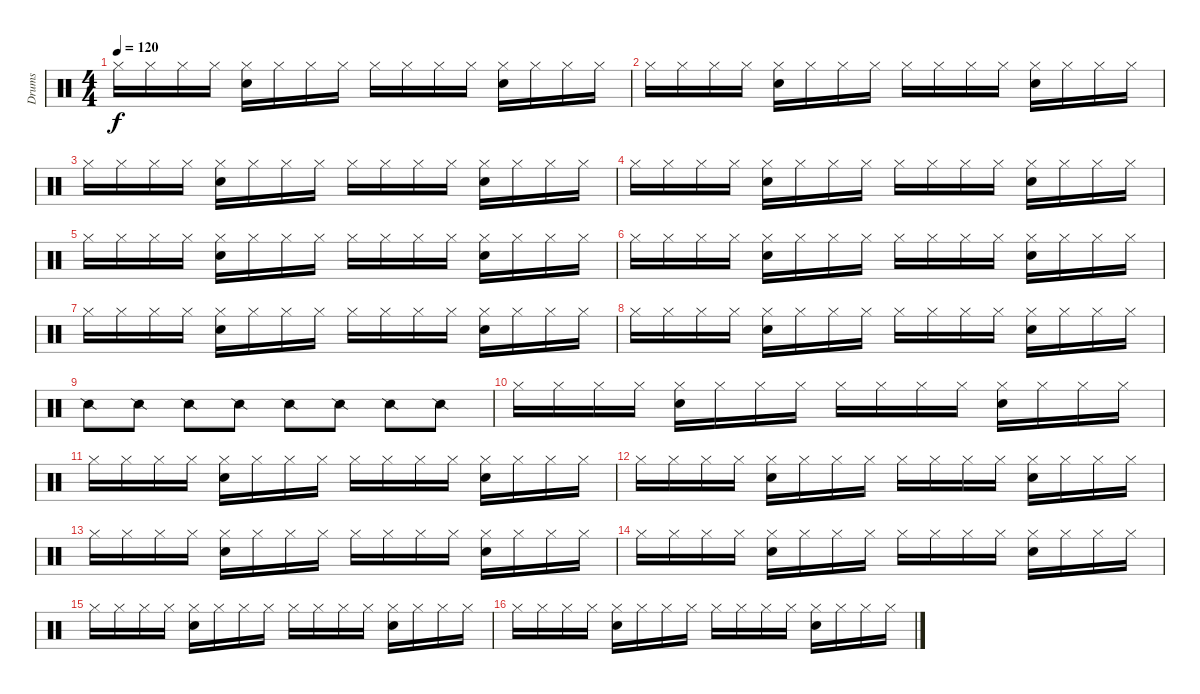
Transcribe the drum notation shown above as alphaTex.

\track ("Drums" "Drums") {instrument percussion}
\staff {score}
\articulation defaults
\ts (4 4)
\tempo 120
\clef neutral
\ks c "Hi-Hat (closed)".16{dy f} "Hi-Hat (closed)".16 "Hi-Hat (closed)".16 "Hi-Hat (closed)".16
("Hi-Hat (closed)" "Electric Snare (hit)").16 "Hi-Hat (closed)".16 "Hi-Hat (closed)".16 "Hi-Hat (closed)".16 "Hi-Hat (closed)".16 "Hi-Hat (closed)".16 "Hi-Hat (closed)".16 "Hi-Hat (closed)".16 ("Hi-Hat (closed)" "Electric Snare (hit)").16 "Hi-Hat (closed)".16 "Hi-Hat (closed)".16 "Hi-Hat (closed)".16 |
"Hi-Hat (closed)".16 "Hi-Hat (closed)".16 "Hi-Hat (closed)".16 "Hi-Hat (closed)".16 ("Hi-Hat (closed)" "Electric Snare (hit)").16 "Hi-Hat (closed)".16 "Hi-Hat (closed)".16 "Hi-Hat (closed)".16 "Hi-Hat (closed)".16 "Hi-Hat (closed)".16 "Hi-Hat (closed)".16 "Hi-Hat (closed)".16 ("Hi-Hat (closed)" "Electric Snare (hit)").16 "Hi-Hat (closed)".16 "Hi-Hat (closed)".16 "Hi-Hat (closed)".16 |
"Hi-Hat (closed)".16 "Hi-Hat (closed)".16 "Hi-Hat (closed)".16 "Hi-Hat (closed)".16 ("Hi-Hat (closed)" "Electric Snare (hit)").16 "Hi-Hat (closed)".16 "Hi-Hat (closed)".16 "Hi-Hat (closed)".16 "Hi-Hat (closed)".16 "Hi-Hat (closed)".16 "Hi-Hat (closed)".16 "Hi-Hat (closed)".16 ("Hi-Hat (closed)" "Electric Snare (hit)").16 "Hi-Hat (closed)".16 "Hi-Hat (closed)".16 "Hi-Hat (closed)".16 |
"Hi-Hat (closed)".16 "Hi-Hat (closed)".16 "Hi-Hat (closed)".16 "Hi-Hat (closed)".16 ("Hi-Hat (closed)" "Electric Snare (hit)").16 "Hi-Hat (closed)".16 "Hi-Hat (closed)".16 "Hi-Hat (closed)".16 "Hi-Hat (closed)".16 "Hi-Hat (closed)".16 "Hi-Hat (closed)".16 "Hi-Hat (closed)".16 ("Hi-Hat (closed)" "Electric Snare (hit)").16 "Hi-Hat (closed)".16 "Hi-Hat (closed)".16 "Hi-Hat (closed)".16 |
"Hi-Hat (closed)".16 "Hi-Hat (closed)".16 "Hi-Hat (closed)".16 "Hi-Hat (closed)".16 ("Hi-Hat (closed)" "Electric Snare (hit)").16 "Hi-Hat (closed)".16 "Hi-Hat (closed)".16 "Hi-Hat (closed)".16 "Hi-Hat (closed)".16 "Hi-Hat (closed)".16 "Hi-Hat (closed)".16 "Hi-Hat (closed)".16 ("Hi-Hat (closed)" "Electric Snare (hit)").16 "Hi-Hat (closed)".16 "Hi-Hat (closed)".16 "Hi-Hat (closed)".16 |
"Hi-Hat (closed)".16 "Hi-Hat (closed)".16 "Hi-Hat (closed)".16 "Hi-Hat (closed)".16 ("Hi-Hat (closed)" "Electric Snare (hit)").16 "Hi-Hat (closed)".16 "Hi-Hat (closed)".16 "Hi-Hat (closed)".16 "Hi-Hat (closed)".16 "Hi-Hat (closed)".16 "Hi-Hat (closed)".16 "Hi-Hat (closed)".16 ("Hi-Hat (closed)" "Electric Snare (hit)").16 "Hi-Hat (closed)".16 "Hi-Hat (closed)".16 "Hi-Hat (closed)".16 |
"Hi-Hat (closed)".16 "Hi-Hat (closed)".16 "Hi-Hat (closed)".16 "Hi-Hat (closed)".16 ("Hi-Hat (closed)" "Electric Snare (hit)").16 "Hi-Hat (closed)".16 "Hi-Hat (closed)".16 "Hi-Hat (closed)".16 "Hi-Hat (closed)".16 "Hi-Hat (closed)".16 "Hi-Hat (closed)".16 "Hi-Hat (closed)".16 ("Hi-Hat (closed)" "Electric Snare (hit)").16 "Hi-Hat (closed)".16 "Hi-Hat (closed)".16 "Hi-Hat (closed)".16 |
"Hi-Hat (closed)".16 "Hi-Hat (closed)".16 "Hi-Hat (closed)".16 "Hi-Hat (closed)".16 ("Hi-Hat (closed)" "Electric Snare (hit)").16 "Hi-Hat (closed)".16 "Hi-Hat (closed)".16 "Hi-Hat (closed)".16 "Hi-Hat (closed)".16 "Hi-Hat (closed)".16 "Hi-Hat (closed)".16 "Hi-Hat (closed)".16 ("Hi-Hat (closed)" "Electric Snare (hit)").16 "Hi-Hat (closed)".16 "Hi-Hat (closed)".16 "Hi-Hat (closed)".16 |
"Snare (side stick) 2".8 "Snare (side stick) 2".8 "Snare (side stick) 2".8 "Snare (side stick) 2".8 "Snare (side stick) 2".8 "Snare (side stick) 2".8 "Snare (side stick) 2".8 "Snare (side stick) 2".8 |
"Hi-Hat (closed)".16 "Hi-Hat (closed)".16 "Hi-Hat (closed)".16 "Hi-Hat (closed)".16 ("Hi-Hat (closed)" "Electric Snare (hit)").16 "Hi-Hat (closed)".16 "Hi-Hat (closed)".16 "Hi-Hat (closed)".16 "Hi-Hat (closed)".16 "Hi-Hat (closed)".16 "Hi-Hat (closed)".16 "Hi-Hat (closed)".16 ("Hi-Hat (closed)" "Electric Snare (hit)").16 "Hi-Hat (closed)".16 "Hi-Hat (closed)".16 "Hi-Hat (closed)".16 |
"Hi-Hat (closed)".16 "Hi-Hat (closed)".16 "Hi-Hat (closed)".16 "Hi-Hat (closed)".16 ("Hi-Hat (closed)" "Electric Snare (hit)").16 "Hi-Hat (closed)".16 "Hi-Hat (closed)".16 "Hi-Hat (closed)".16 "Hi-Hat (closed)".16 "Hi-Hat (closed)".16 "Hi-Hat (closed)".16 "Hi-Hat (closed)".16 ("Hi-Hat (closed)" "Electric Snare (hit)").16 "Hi-Hat (closed)".16 "Hi-Hat (closed)".16 "Hi-Hat (closed)".16 |
"Hi-Hat (closed)".16 "Hi-Hat (closed)".16 "Hi-Hat (closed)".16 "Hi-Hat (closed)".16 ("Hi-Hat (closed)" "Electric Snare (hit)").16 "Hi-Hat (closed)".16 "Hi-Hat (closed)".16 "Hi-Hat (closed)".16 "Hi-Hat (closed)".16 "Hi-Hat (closed)".16 "Hi-Hat (closed)".16 "Hi-Hat (closed)".16 ("Hi-Hat (closed)" "Electric Snare (hit)").16 "Hi-Hat (closed)".16 "Hi-Hat (closed)".16 "Hi-Hat (closed)".16 |
"Hi-Hat (closed)".16 "Hi-Hat (closed)".16 "Hi-Hat (closed)".16 "Hi-Hat (closed)".16 ("Hi-Hat (closed)" "Electric Snare (hit)").16 "Hi-Hat (closed)".16 "Hi-Hat (closed)".16 "Hi-Hat (closed)".16 "Hi-Hat (closed)".16 "Hi-Hat (closed)".16 "Hi-Hat (closed)".16 "Hi-Hat (closed)".16 ("Hi-Hat (closed)" "Electric Snare (hit)").16 "Hi-Hat (closed)".16 "Hi-Hat (closed)".16 "Hi-Hat (closed)".16 |
"Hi-Hat (closed)".16 "Hi-Hat (closed)".16 "Hi-Hat (closed)".16 "Hi-Hat (closed)".16 ("Hi-Hat (closed)" "Electric Snare (hit)").16 "Hi-Hat (closed)".16 "Hi-Hat (closed)".16 "Hi-Hat (closed)".16 "Hi-Hat (closed)".16 "Hi-Hat (closed)".16 "Hi-Hat (closed)".16 "Hi-Hat (closed)".16 ("Hi-Hat (closed)" "Electric Snare (hit)").16 "Hi-Hat (closed)".16 "Hi-Hat (closed)".16 "Hi-Hat (closed)".16 |
"Hi-Hat (closed)".16 "Hi-Hat (closed)".16 "Hi-Hat (closed)".16 "Hi-Hat (closed)".16 ("Hi-Hat (closed)" "Electric Snare (hit)").16 "Hi-Hat (closed)".16 "Hi-Hat (closed)".16 "Hi-Hat (closed)".16 "Hi-Hat (closed)".16 "Hi-Hat (closed)".16 "Hi-Hat (closed)".16 "Hi-Hat (closed)".16 ("Hi-Hat (closed)" "Electric Snare (hit)").16 "Hi-Hat (closed)".16 "Hi-Hat (closed)".16 "Hi-Hat (closed)".16 |
"Hi-Hat (closed)".16 "Hi-Hat (closed)".16 "Hi-Hat (closed)".16 "Hi-Hat (closed)".16 ("Hi-Hat (closed)" "Electric Snare (hit)").16 "Hi-Hat (closed)".16 "Hi-Hat (closed)".16 "Hi-Hat (closed)".16 "Hi-Hat (closed)".16 "Hi-Hat (closed)".16 "Hi-Hat (closed)".16 "Hi-Hat (closed)".16 ("Hi-Hat (closed)" "Electric Snare (hit)").16 "Hi-Hat (closed)".16 "Hi-Hat (closed)".16 "Hi-Hat (closed)".16
